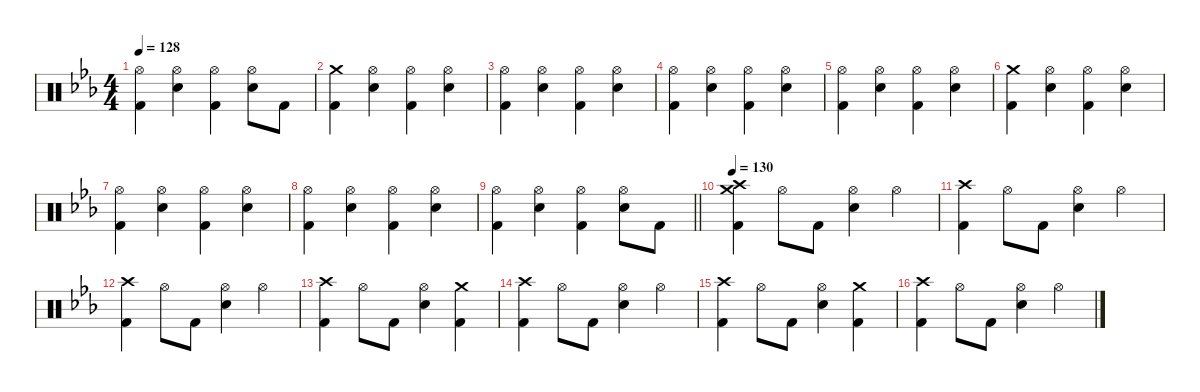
\defaultSystemsLayout 4
\hideDynamics
\bracketExtendMode nobrackets
\singleTrackTrackNamePolicy hidden
\multiTrackTrackNamePolicy hidden
\firstSystemTrackNameMode fullname
\firstSystemTrackNameOrientation horizontal
\otherSystemsTrackNameOrientation horizontal
\track ("Drums" "drm.") {instrument percussion}
\staff {score}
\articulation defaults
\ts (4 4)
\tempo 128
\clef neutral
\ks cminor
("Hi-Hat (open)"{acc forcenatural} "Kick (hit) 2"{acc forcenatural}).4{dy mp} ("Hi-Hat (open)"{acc forcenatural} "Snare (hit) 2"{acc forcenatural}).4 ("Hi-Hat (open)"{acc forcenatural} "Kick (hit) 2"{acc forcenatural}).4 ("Hi-Hat (open)"{acc forcenatural} "Snare (hit) 2"{acc forcenatural}).8 "Kick (hit) 2"{acc forcenatural}.8{dy f} |
("Crash medium (hit)"{acc forcenatural} "Kick (hit) 2"{acc forcenatural}).4 ("Hi-Hat (open)"{acc forcenatural} "Snare (hit) 2"{acc forcenatural}).4{dy mp} ("Hi-Hat (open)"{acc forcenatural} "Kick (hit) 2"{acc forcenatural}).4 ("Hi-Hat (open)"{acc forcenatural} "Snare (hit) 2"{acc forcenatural}).4 |
("Hi-Hat (open)"{acc forcenatural} "Kick (hit) 2"{acc forcenatural}).4 ("Hi-Hat (open)"{acc forcenatural} "Snare (hit) 2"{acc forcenatural}).4 ("Hi-Hat (open)"{acc forcenatural} "Kick (hit) 2"{acc forcenatural}).4 ("Hi-Hat (open)"{acc forcenatural} "Snare (hit) 2"{acc forcenatural}).4 |
("Hi-Hat (open)"{acc forcenatural} "Kick (hit) 2"{acc forcenatural}).4 ("Hi-Hat (open)"{acc forcenatural} "Snare (hit) 2"{acc forcenatural}).4 ("Hi-Hat (open)"{acc forcenatural} "Kick (hit) 2"{acc forcenatural}).4 ("Hi-Hat (open)"{acc forcenatural} "Snare (hit) 2"{acc forcenatural}).4 |
("Hi-Hat (open)"{acc forcenatural} "Kick (hit) 2"{acc forcenatural}).4 ("Hi-Hat (open)"{acc forcenatural} "Snare (hit) 2"{acc forcenatural}).4 ("Hi-Hat (open)"{acc forcenatural} "Kick (hit) 2"{acc forcenatural}).4 ("Hi-Hat (open)"{acc forcenatural} "Snare (hit) 2"{acc forcenatural}).4 |
("Crash medium (hit)"{acc forcenatural} "Kick (hit) 2"{acc forcenatural}).4{dy f} ("Hi-Hat (open)"{acc forcenatural} "Snare (hit) 2"{acc forcenatural}).4{dy mp} ("Hi-Hat (open)"{acc forcenatural} "Kick (hit) 2"{acc forcenatural}).4 ("Hi-Hat (open)"{acc forcenatural} "Snare (hit) 2"{acc forcenatural}).4 |
("Hi-Hat (open)"{acc forcenatural} "Kick (hit) 2"{acc forcenatural}).4 ("Hi-Hat (open)"{acc forcenatural} "Snare (hit) 2"{acc forcenatural}).4 ("Hi-Hat (open)"{acc forcenatural} "Kick (hit) 2"{acc forcenatural}).4 ("Hi-Hat (open)"{acc forcenatural} "Snare (hit) 2"{acc forcenatural}).4 |
("Hi-Hat (open)"{acc forcenatural} "Kick (hit) 2"{acc forcenatural}).4 ("Hi-Hat (open)"{acc forcenatural} "Snare (hit) 2"{acc forcenatural}).4 ("Hi-Hat (open)"{acc forcenatural} "Kick (hit) 2"{acc forcenatural}).4 ("Hi-Hat (open)"{acc forcenatural} "Snare (hit) 2"{acc forcenatural}).4 |
\barLineRight lightlight
("Hi-Hat (open)"{acc forcenatural} "Kick (hit) 2"{acc forcenatural}).4 ("Hi-Hat (open)"{acc forcenatural} "Snare (hit) 2"{acc forcenatural}).4 ("Hi-Hat (open)"{acc forcenatural} "Kick (hit) 2"{acc forcenatural}).4 ("Hi-Hat (open)"{acc forcenatural} "Snare (hit) 2"{acc forcenatural}).8 "Kick (hit) 2"{acc forcenatural}.8{dy f} |
\tempo 130
("Crash medium (hit)"{acc forcenatural} "Crash high (hit)"{acc forcenatural} "Kick (hit) 2"{acc forcenatural}).4 "Hi-Hat (open)"{acc forcenatural}.8{dy mp} "Kick (hit) 2"{acc forcenatural}.8{dy f} ("Hi-Hat (open)"{acc forcenatural} "Snare (hit) 2"{acc forcenatural}).4{dy mp} "Hi-Hat (open)"{acc forcenatural}.4 |
("Crash high (hit)"{acc forcenatural} "Kick (hit) 2"{acc forcenatural}).4 "Hi-Hat (open)"{acc forcenatural}.8 "Kick (hit) 2"{acc forcenatural}.8{dy f} ("Hi-Hat (open)"{acc forcenatural} "Snare (hit) 2"{acc forcenatural}).4{dy mp} "Hi-Hat (open)"{acc forcenatural}.4 |
("Crash high (hit)"{acc forcenatural} "Kick (hit) 2"{acc forcenatural}).4 "Hi-Hat (open)"{acc forcenatural}.8 "Kick (hit) 2"{acc forcenatural}.8{dy f} ("Hi-Hat (open)"{acc forcenatural} "Snare (hit) 2"{acc forcenatural}).4{dy mp} "Hi-Hat (open)"{acc forcenatural}.4 |
("Crash high (hit)"{acc forcenatural} "Kick (hit) 2"{acc forcenatural}).4 "Hi-Hat (open)"{acc forcenatural}.8 "Kick (hit) 2"{acc forcenatural}.8{dy f} ("Hi-Hat (open)"{acc forcenatural} "Snare (hit) 2"{acc forcenatural}).4{dy mp} ("Crash medium (hit)"{acc forcenatural} "Kick (hit) 2"{acc forcenatural}).4 |
("Crash high (hit)"{acc forcenatural} "Kick (hit) 2"{acc forcenatural}).4 "Hi-Hat (open)"{acc forcenatural}.8 "Kick (hit) 2"{acc forcenatural}.8{dy f} ("Hi-Hat (open)"{acc forcenatural} "Snare (hit) 2"{acc forcenatural}).4{dy mp} "Hi-Hat (open)"{acc forcenatural}.4 |
("Crash high (hit)"{acc forcenatural} "Kick (hit) 2"{acc forcenatural}).4 "Hi-Hat (open)"{acc forcenatural}.8 "Kick (hit) 2"{acc forcenatural}.8{dy f} ("Hi-Hat (open)"{acc forcenatural} "Snare (hit) 2"{acc forcenatural}).4{dy mp} ("Crash medium (hit)"{acc forcenatural} "Kick (hit) 2"{acc forcenatural}).4 |
("Crash high (hit)"{acc forcenatural} "Kick (hit) 2"{acc forcenatural}).4 "Hi-Hat (open)"{acc forcenatural}.8 "Kick (hit) 2"{acc forcenatural}.8{dy f} ("Hi-Hat (open)"{acc forcenatural} "Snare (hit) 2"{acc forcenatural}).4{dy mp} "Hi-Hat (open)"{acc forcenatural}.4
